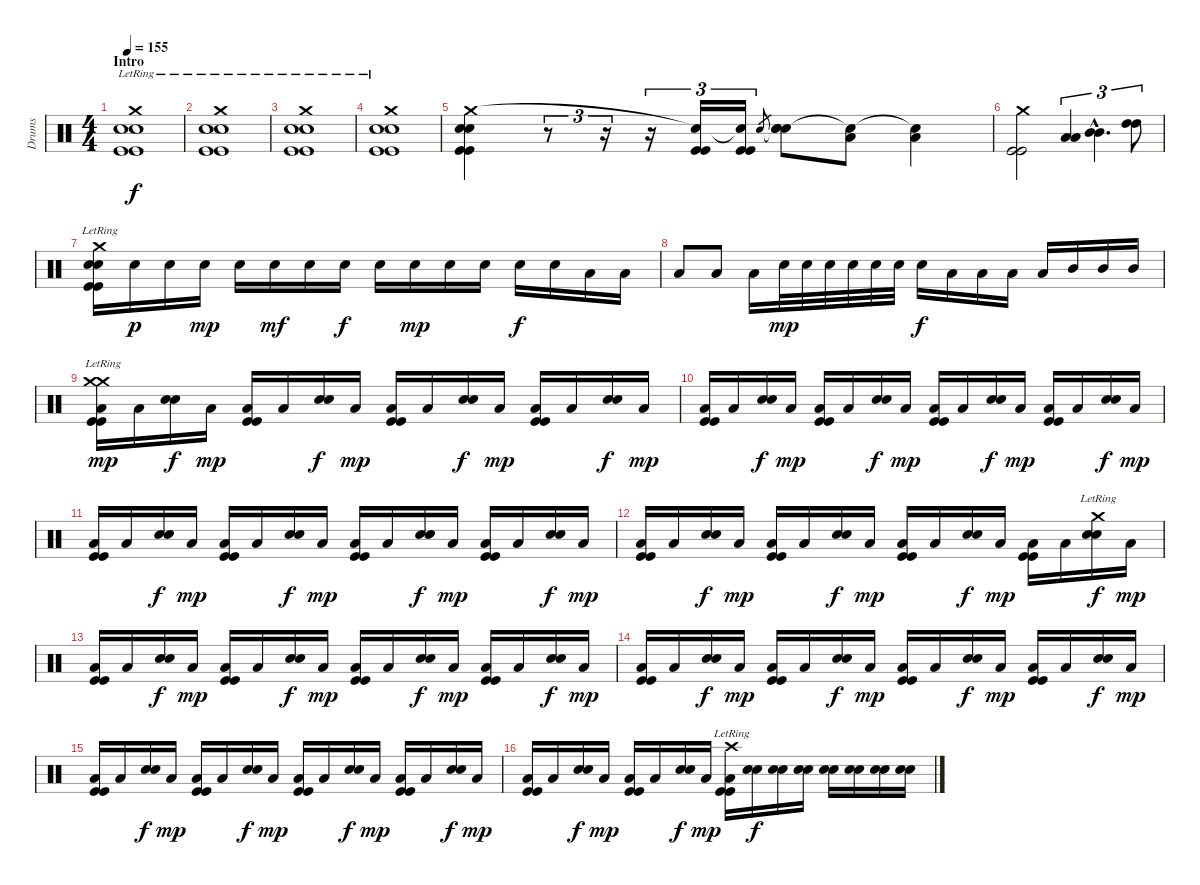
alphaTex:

\track ("Drums" "Drums") {instrument percussion}
\staff {score}
\articulation defaults
\ts (4 4)
\section ("" "Intro")
\tempo 155
\clef neutral
\ks c
("Crash medium (hit)"{lr} "Snare (hit) 2" "Snare (hit) 2" "Kick (hit)" "Kick (hit)").1{dy f} |
("Crash medium (hit)"{lr} "Snare (hit) 2" "Snare (hit) 2" "Kick (hit)" "Kick (hit)").1 |
("Crash medium (hit)"{lr} "Snare (hit) 2" "Snare (hit) 2" "Kick (hit)" "Kick (hit)").1 |
("Crash medium (hit)"{lr} "Snare (hit) 2" "Snare (hit) 2" "Kick (hit)" "Kick (hit)").1 |
("Crash medium (hit)" "Snare (hit) 2" "Snare (hit) 2" "Kick (hit)" "Kick (hit)").4 r.8{tu (3 2)} r.16{tu (3 2)} r.16{tu (3 2)} ("Snare (hit)"{t} "Kick (hit)" "Kick (hit)").16{tu (3 2)} ("Snare (hit)"{t} "Kick (hit)" "Kick (hit)").16{tu (3 2)} "Snare (hit) 2".8{gr} ("Snare (hit)"{t} "Snare (hit) 2" "Snare (hit) 2").8 ("Snare (hit)"{t} "Low Tom (hit)").8 ("Snare (hit)"{t} "Low Tom (hit)").4 |
("Crash medium (hit)" "Kick (hit)" "Kick (hit)").2 ("Low Tom (hit)" "Low Tom (hit)").4{tu (3 2)} ("Mid Tom (hit)"{hac} "Mid Tom (hit)"{hac}).4{d tu (3 2)} ("High Tom (hit)" "High Tom (hit)").8{tu (3 2)} |
("Crash medium (hit)"{lr} "Snare (hit) 2" "Snare (hit) 2" "Kick (hit)" "Kick (hit)").16 "Snare (hit) 2".16{dy p} "Snare (hit) 2".16 "Snare (hit) 2".16{dy mp} "Snare (hit) 2".16 "Snare (hit) 2".16{dy mf} "Snare (hit) 2".16 "Snare (hit) 2".16{dy f} "Snare (hit) 2".16 "Snare (hit) 2".16{dy mp} "Snare (hit) 2".16 "Snare (hit) 2".16 "Snare (hit) 2".16{dy f} "Snare (hit) 2".16 "Low Tom (hit)".16 "Low Tom (hit)".16 |
"Low Tom (hit)".8 "Low Tom (hit)".8 "Low Tom (hit)".16 "Snare (hit) 2".32{dy mp} "Snare (hit) 2".32 "Snare (hit) 2".32 "Snare (hit) 2".32 "Snare (hit) 2".32 "Snare (hit) 2".32 "Snare (hit) 2".16{dy f} "Low Tom (hit)".16 "Low Tom (hit)".16 "Low Tom (hit)".16 "Low Tom (hit)".16 "Mid Tom (hit)".16 "Mid Tom (hit)".16 "Mid Tom (hit)".16 |
("Crash medium (hit)"{lr} "Crash medium (hit)"{lr} "Low Tom (hit)" "Kick (hit)" "Kick (hit)").16{dy mp} "Low Tom (hit)".16 ("Snare (hit) 2" "Snare (hit) 2").16{dy f} "Low Tom (hit)".16{dy mp} ("Low Tom (hit)" "Kick (hit)" "Kick (hit)").16 "Low Tom (hit)".16 ("Snare (hit) 2" "Snare (hit) 2").16{dy f} "Low Tom (hit)".16{dy mp} ("Low Tom (hit)" "Kick (hit)" "Kick (hit)").16 "Low Tom (hit)".16 ("Snare (hit) 2" "Snare (hit) 2").16{dy f} "Low Tom (hit)".16{dy mp} ("Low Tom (hit)" "Kick (hit)" "Kick (hit)").16 "Low Tom (hit)".16 ("Snare (hit) 2" "Snare (hit) 2").16{dy f} "Low Tom (hit)".16{dy mp} |
("Low Tom (hit)" "Kick (hit)" "Kick (hit)").16 "Low Tom (hit)".16 ("Snare (hit) 2" "Snare (hit) 2").16{dy f} "Low Tom (hit)".16{dy mp} ("Low Tom (hit)" "Kick (hit)" "Kick (hit)").16 "Low Tom (hit)".16 ("Snare (hit) 2" "Snare (hit) 2").16{dy f} "Low Tom (hit)".16{dy mp} ("Low Tom (hit)" "Kick (hit)" "Kick (hit)").16 "Low Tom (hit)".16 ("Snare (hit) 2" "Snare (hit) 2").16{dy f} "Low Tom (hit)".16{dy mp} ("Low Tom (hit)" "Kick (hit)" "Kick (hit)").16 "Low Tom (hit)".16 ("Snare (hit) 2" "Snare (hit) 2").16{dy f} "Low Tom (hit)".16{dy mp} |
("Low Tom (hit)" "Kick (hit)" "Kick (hit)").16 "Low Tom (hit)".16 ("Snare (hit) 2" "Snare (hit) 2").16{dy f} "Low Tom (hit)".16{dy mp} ("Low Tom (hit)" "Kick (hit)" "Kick (hit)").16 "Low Tom (hit)".16 ("Snare (hit) 2" "Snare (hit) 2").16{dy f} "Low Tom (hit)".16{dy mp} ("Low Tom (hit)" "Kick (hit)" "Kick (hit)").16 "Low Tom (hit)".16 ("Snare (hit) 2" "Snare (hit) 2").16{dy f} "Low Tom (hit)".16{dy mp} ("Low Tom (hit)" "Kick (hit)" "Kick (hit)").16 "Low Tom (hit)".16 ("Snare (hit) 2" "Snare (hit) 2").16{dy f} "Low Tom (hit)".16{dy mp} |
("Low Tom (hit)" "Kick (hit)" "Kick (hit)").16 "Low Tom (hit)".16 ("Snare (hit) 2" "Snare (hit) 2").16{dy f} "Low Tom (hit)".16{dy mp} ("Low Tom (hit)" "Kick (hit)" "Kick (hit)").16 "Low Tom (hit)".16 ("Snare (hit) 2" "Snare (hit) 2").16{dy f} "Low Tom (hit)".16{dy mp} ("Low Tom (hit)" "Kick (hit)" "Kick (hit)").16 "Low Tom (hit)".16 ("Snare (hit) 2" "Snare (hit) 2").16{dy f} "Low Tom (hit)".16{dy mp} ("Low Tom (hit)" "Kick (hit)" "Kick (hit)").16 "Low Tom (hit)".16 ("Crash medium (hit)"{lr} "Snare (hit) 2" "Snare (hit) 2").16{dy f} "Low Tom (hit)".16{dy mp} |
("Low Tom (hit)" "Kick (hit)" "Kick (hit)").16 "Low Tom (hit)".16 ("Snare (hit) 2" "Snare (hit) 2").16{dy f} "Low Tom (hit)".16{dy mp} ("Low Tom (hit)" "Kick (hit)" "Kick (hit)").16 "Low Tom (hit)".16 ("Snare (hit) 2" "Snare (hit) 2").16{dy f} "Low Tom (hit)".16{dy mp} ("Low Tom (hit)" "Kick (hit)" "Kick (hit)").16 "Low Tom (hit)".16 ("Snare (hit) 2" "Snare (hit) 2").16{dy f} "Low Tom (hit)".16{dy mp} ("Low Tom (hit)" "Kick (hit)" "Kick (hit)").16 "Low Tom (hit)".16 ("Snare (hit) 2" "Snare (hit) 2").16{dy f} "Low Tom (hit)".16{dy mp} |
("Low Tom (hit)" "Kick (hit)" "Kick (hit)").16 "Low Tom (hit)".16 ("Snare (hit) 2" "Snare (hit) 2").16{dy f} "Low Tom (hit)".16{dy mp} ("Low Tom (hit)" "Kick (hit)" "Kick (hit)").16 "Low Tom (hit)".16 ("Snare (hit) 2" "Snare (hit) 2").16{dy f} "Low Tom (hit)".16{dy mp} ("Low Tom (hit)" "Kick (hit)" "Kick (hit)").16 "Low Tom (hit)".16 ("Snare (hit) 2" "Snare (hit) 2").16{dy f} "Low Tom (hit)".16{dy mp} ("Low Tom (hit)" "Kick (hit)" "Kick (hit)").16 "Low Tom (hit)".16 ("Snare (hit) 2" "Snare (hit) 2").16{dy f} "Low Tom (hit)".16{dy mp} |
("Low Tom (hit)" "Kick (hit)" "Kick (hit)").16 "Low Tom (hit)".16 ("Snare (hit) 2" "Snare (hit) 2").16{dy f} "Low Tom (hit)".16{dy mp} ("Low Tom (hit)" "Kick (hit)" "Kick (hit)").16 "Low Tom (hit)".16 ("Snare (hit) 2" "Snare (hit) 2").16{dy f} "Low Tom (hit)".16{dy mp} ("Low Tom (hit)" "Kick (hit)" "Kick (hit)").16 "Low Tom (hit)".16 ("Snare (hit) 2" "Snare (hit) 2").16{dy f} "Low Tom (hit)".16{dy mp} ("Low Tom (hit)" "Kick (hit)" "Kick (hit)").16 "Low Tom (hit)".16 ("Snare (hit) 2" "Snare (hit) 2").16{dy f} "Low Tom (hit)".16{dy mp} |
("Low Tom (hit)" "Kick (hit)" "Kick (hit)").16 "Low Tom (hit)".16 ("Snare (hit) 2" "Snare (hit) 2").16{dy f} "Low Tom (hit)".16{dy mp} ("Low Tom (hit)" "Kick (hit)" "Kick (hit)").16 "Low Tom (hit)".16 ("Snare (hit) 2" "Snare (hit) 2").16{dy f} "Low Tom (hit)".16{dy mp} ("Crash high (hit)"{lr} "Low Tom (hit)" "Kick (hit)" "Kick (hit)").16 ("Snare (hit) 2" "Snare (hit) 2").16{dy f} ("Snare (hit) 2" "Snare (hit) 2").16 ("Snare (hit) 2" "Snare (hit) 2").16 ("Snare (hit) 2" "Snare (hit) 2").16 ("Snare (hit) 2" "Snare (hit) 2").16 ("Snare (hit) 2" "Snare (hit) 2").16 ("Snare (hit) 2" "Snare (hit) 2").16
